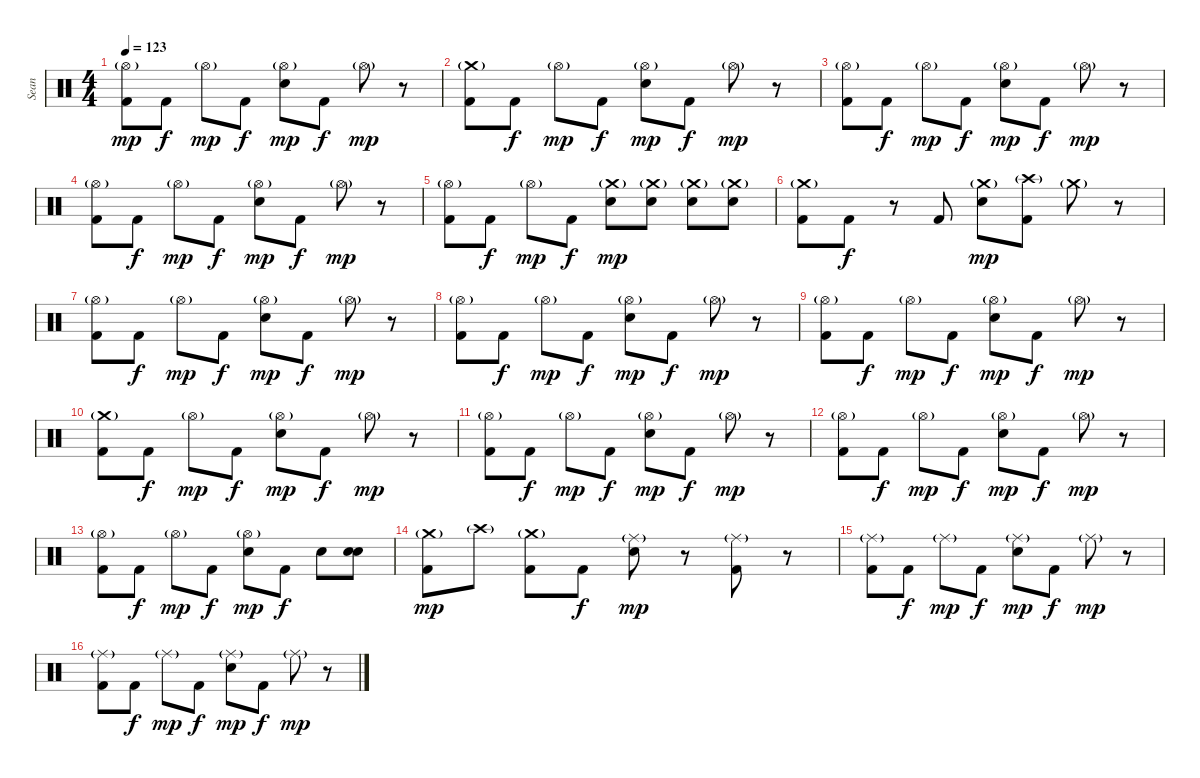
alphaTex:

\track ("Sean" "Sean") {instrument percussion}
\staff {score}
\articulation defaults
\ts (4 4)
\tempo 123
\clef neutral
\ks c
("Hi-Hat (open)"{g} "Kick (hit) 2").8{dy mp} "Kick (hit) 2".8{dy f} "Hi-Hat (open)"{g}.8{dy mp} "Kick (hit) 2".8{dy f} ("Hi-Hat (open)"{g} "Electric Snare (hit)").8{dy mp} "Kick (hit) 2".8{dy f} "Hi-Hat (open)"{g}.8{dy mp} r.8 |
("Crash medium (hit)"{g} "Kick (hit) 2").8 "Kick (hit) 2".8{dy f} "Hi-Hat (open)"{g}.8{dy mp} "Kick (hit) 2".8{dy f} ("Hi-Hat (open)"{g} "Electric Snare (hit)").8{dy mp} "Kick (hit) 2".8{dy f} "Hi-Hat (open)"{g}.8{dy mp} r.8 |
("Hi-Hat (open)"{g} "Kick (hit) 2").8 "Kick (hit) 2".8{dy f} "Hi-Hat (open)"{g}.8{dy mp} "Kick (hit) 2".8{dy f} ("Hi-Hat (open)"{g} "Electric Snare (hit)").8{dy mp} "Kick (hit) 2".8{dy f} "Hi-Hat (open)"{g}.8{dy mp} r.8 |
("Hi-Hat (open)"{g} "Kick (hit) 2").8 "Kick (hit) 2".8{dy f} "Hi-Hat (open)"{g}.8{dy mp} "Kick (hit) 2".8{dy f} ("Hi-Hat (open)"{g} "Electric Snare (hit)").8{dy mp} "Kick (hit) 2".8{dy f} "Hi-Hat (open)"{g}.8{dy mp} r.8 |
("Hi-Hat (open)"{g} "Kick (hit) 2").8 "Kick (hit) 2".8{dy f} "Hi-Hat (open)"{g}.8{dy mp} "Kick (hit) 2".8{dy f} ("Crash medium (hit)"{g} "Electric Snare (hit)").8{dy mp} ("Crash medium (hit)"{g} "Electric Snare (hit)").8 ("Crash medium (hit)"{g} "Electric Snare (hit)").8 ("Crash medium (hit)"{g} "Electric Snare (hit)").8 |
("Crash medium (hit)"{g} "Kick (hit) 2").8 "Kick (hit) 2".8{dy f} r.8 "Kick (hit) 2".8 ("Crash medium (hit)"{g} "Electric Snare (hit)").8{dy mp} ("Crash high (hit)"{g} "Kick (hit) 2").8 "Crash medium (hit)"{g}.8 r.8 |
("Hi-Hat (open)"{g} "Kick (hit) 2").8 "Kick (hit) 2".8{dy f} "Hi-Hat (open)"{g}.8{dy mp} "Kick (hit) 2".8{dy f} ("Hi-Hat (open)"{g} "Electric Snare (hit)").8{dy mp} "Kick (hit) 2".8{dy f} "Hi-Hat (open)"{g}.8{dy mp} r.8 |
("Hi-Hat (open)"{g} "Kick (hit) 2").8 "Kick (hit) 2".8{dy f} "Hi-Hat (open)"{g}.8{dy mp} "Kick (hit) 2".8{dy f} ("Hi-Hat (open)"{g} "Electric Snare (hit)").8{dy mp} "Kick (hit) 2".8{dy f} "Hi-Hat (open)"{g}.8{dy mp} r.8 |
("Hi-Hat (open)"{g} "Kick (hit) 2").8 "Kick (hit) 2".8{dy f} "Hi-Hat (open)"{g}.8{dy mp} "Kick (hit) 2".8{dy f} ("Hi-Hat (open)"{g} "Electric Snare (hit)").8{dy mp} "Kick (hit) 2".8{dy f} "Hi-Hat (open)"{g}.8{dy mp} r.8 |
("Crash medium (hit)"{g} "Kick (hit) 2").8 "Kick (hit) 2".8{dy f} "Hi-Hat (open)"{g}.8{dy mp} "Kick (hit) 2".8{dy f} ("Hi-Hat (open)"{g} "Electric Snare (hit)").8{dy mp} "Kick (hit) 2".8{dy f} "Hi-Hat (open)"{g}.8{dy mp} r.8 |
("Hi-Hat (open)"{g} "Kick (hit) 2").8 "Kick (hit) 2".8{dy f} "Hi-Hat (open)"{g}.8{dy mp} "Kick (hit) 2".8{dy f} ("Hi-Hat (open)"{g} "Electric Snare (hit)").8{dy mp} "Kick (hit) 2".8{dy f} "Hi-Hat (open)"{g}.8{dy mp} r.8 |
("Hi-Hat (open)"{g} "Kick (hit) 2").8 "Kick (hit) 2".8{dy f} "Hi-Hat (open)"{g}.8{dy mp} "Kick (hit) 2".8{dy f} ("Hi-Hat (open)"{g} "Electric Snare (hit)").8{dy mp} "Kick (hit) 2".8{dy f} "Hi-Hat (open)"{g}.8{dy mp} r.8 |
("Hi-Hat (open)"{g} "Kick (hit) 2").8 "Kick (hit) 2".8{dy f} "Hi-Hat (open)"{g}.8{dy mp} "Kick (hit) 2".8{dy f} ("Hi-Hat (open)"{g} "Electric Snare (hit)").8{dy mp} "Kick (hit) 2".8{dy f} "Electric Snare (hit)".8 ("Electric Snare (hit)" "Electric Snare (hit)").8{bd 480} |
("Crash medium (hit)"{g} "Kick (hit) 2").8{dy mp} "Crash high (hit)"{g}.8 ("Crash medium (hit)"{g} "Kick (hit) 2").8 "Kick (hit) 2".8{dy f} ("Ride (middle)"{g} "Electric Snare (hit)").8{dy mp} r.8 ("Ride (middle)"{g} "Kick (hit) 2").8 r.8 |
("Ride (middle)"{g} "Kick (hit) 2").8 "Kick (hit) 2".8{dy f} "Ride (middle)"{g}.8{dy mp} "Kick (hit) 2".8{dy f} ("Ride (middle)"{g} "Electric Snare (hit)").8{dy mp} "Kick (hit) 2".8{dy f} "Ride (middle)"{g}.8{dy mp} r.8 |
("Ride (middle)"{g} "Kick (hit) 2").8 "Kick (hit) 2".8{dy f} "Ride (middle)"{g}.8{dy mp} "Kick (hit) 2".8{dy f} ("Ride (middle)"{g} "Electric Snare (hit)").8{dy mp} "Kick (hit) 2".8{dy f} "Ride (middle)"{g}.8{dy mp} r.8
